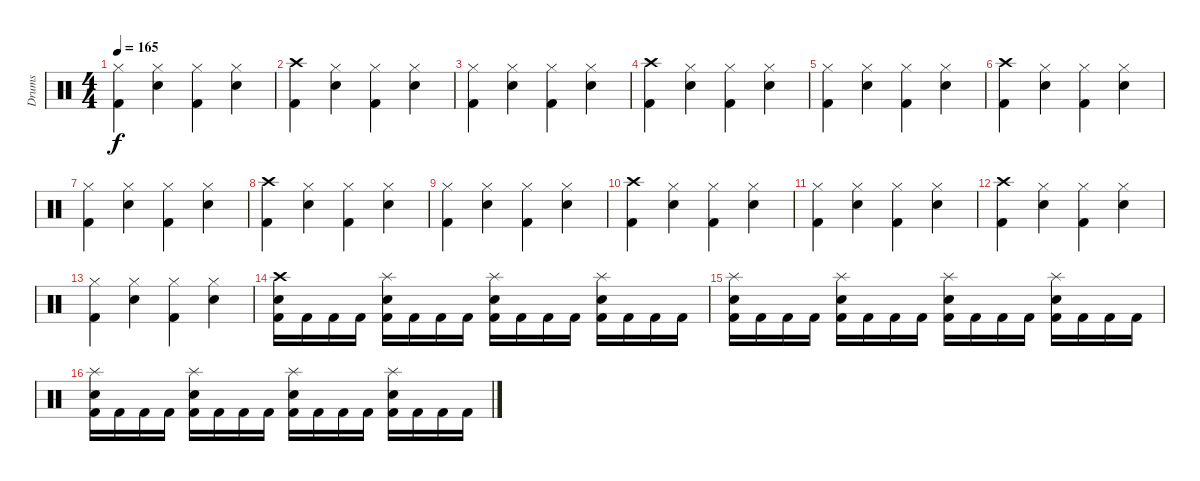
\track ("Drums" "Drums") {instrument percussion}
\staff {score}
\articulation defaults
\ts (4 4)
\tempo 165
\clef neutral
\ks c
("Kick (hit) 2" "Hi-Hat (closed)").4{dy f} ("Snare (hit) 2" "Hi-Hat (closed)").4 ("Kick (hit) 2" "Hi-Hat (closed)").4 ("Snare (hit) 2" "Hi-Hat (closed)").4 |
("Kick (hit) 2" "Crash high (hit)").4 ("Snare (hit) 2" "Hi-Hat (closed)").4 ("Kick (hit) 2" "Hi-Hat (closed)").4 ("Snare (hit) 2" "Hi-Hat (closed)").4 |
("Kick (hit) 2" "Hi-Hat (closed)").4 ("Snare (hit) 2" "Hi-Hat (closed)").4 ("Kick (hit) 2" "Hi-Hat (closed)").4 ("Snare (hit) 2" "Hi-Hat (closed)").4 |
("Kick (hit) 2" "Crash high (hit)").4 ("Snare (hit) 2" "Hi-Hat (closed)").4 ("Kick (hit) 2" "Hi-Hat (closed)").4 ("Snare (hit) 2" "Hi-Hat (closed)").4 |
("Kick (hit) 2" "Hi-Hat (closed)").4 ("Snare (hit) 2" "Hi-Hat (closed)").4 ("Kick (hit) 2" "Hi-Hat (closed)").4 ("Snare (hit) 2" "Hi-Hat (closed)").4 |
("Kick (hit) 2" "Crash high (hit)").4 ("Snare (hit) 2" "Hi-Hat (closed)").4 ("Kick (hit) 2" "Hi-Hat (closed)").4 ("Snare (hit) 2" "Hi-Hat (closed)").4 |
("Kick (hit) 2" "Hi-Hat (closed)").4 ("Snare (hit) 2" "Hi-Hat (closed)").4 ("Kick (hit) 2" "Hi-Hat (closed)").4 ("Snare (hit) 2" "Hi-Hat (closed)").4 |
("Kick (hit) 2" "Crash high (hit)").4 ("Snare (hit) 2" "Hi-Hat (closed)").4 ("Kick (hit) 2" "Hi-Hat (closed)").4 ("Snare (hit) 2" "Hi-Hat (closed)").4 |
("Kick (hit) 2" "Hi-Hat (closed)").4 ("Snare (hit) 2" "Hi-Hat (closed)").4 ("Kick (hit) 2" "Hi-Hat (closed)").4 ("Snare (hit) 2" "Hi-Hat (closed)").4 |
("Kick (hit) 2" "Crash high (hit)").4 ("Snare (hit) 2" "Hi-Hat (closed)").4 ("Kick (hit) 2" "Hi-Hat (closed)").4 ("Snare (hit) 2" "Hi-Hat (closed)").4 |
("Kick (hit) 2" "Hi-Hat (closed)").4 ("Snare (hit) 2" "Hi-Hat (closed)").4 ("Kick (hit) 2" "Hi-Hat (closed)").4 ("Snare (hit) 2" "Hi-Hat (closed)").4 |
("Kick (hit) 2" "Crash high (hit)").4 ("Snare (hit) 2" "Hi-Hat (closed)").4 ("Kick (hit) 2" "Hi-Hat (closed)").4 ("Snare (hit) 2" "Hi-Hat (closed)").4 |
("Kick (hit) 2" "Hi-Hat (closed)").4 ("Snare (hit) 2" "Hi-Hat (closed)").4 ("Kick (hit) 2" "Hi-Hat (closed)").4 ("Snare (hit) 2" "Hi-Hat (closed)").4 |
("Kick (hit) 2" "Snare (hit) 2" "Crash high (hit)").16 "Kick (hit) 2".16 "Kick (hit) 2".16 "Kick (hit) 2".16 ("Kick (hit) 2" "Snare (hit) 2" "Splash (hit)").16 "Kick (hit) 2".16 "Kick (hit) 2".16 "Kick (hit) 2".16 ("Kick (hit) 2" "Snare (hit) 2" "Splash (hit)").16 "Kick (hit) 2".16 "Kick (hit) 2".16 "Kick (hit) 2".16 ("Kick (hit) 2" "Snare (hit) 2" "Splash (hit)").16 "Kick (hit) 2".16 "Kick (hit) 2".16 "Kick (hit) 2".16 |
("Kick (hit) 2" "Snare (hit) 2" "Splash (hit)").16 "Kick (hit) 2".16 "Kick (hit) 2".16 "Kick (hit) 2".16 ("Kick (hit) 2" "Snare (hit) 2" "Splash (hit)").16 "Kick (hit) 2".16 "Kick (hit) 2".16 "Kick (hit) 2".16 ("Kick (hit) 2" "Snare (hit) 2" "Splash (hit)").16 "Kick (hit) 2".16 "Kick (hit) 2".16 "Kick (hit) 2".16 ("Kick (hit) 2" "Snare (hit) 2" "Splash (hit)").16 "Kick (hit) 2".16 "Kick (hit) 2".16 "Kick (hit) 2".16 |
("Kick (hit) 2" "Snare (hit) 2" "Splash (hit)").16 "Kick (hit) 2".16 "Kick (hit) 2".16 "Kick (hit) 2".16 ("Kick (hit) 2" "Snare (hit) 2" "Splash (hit)").16 "Kick (hit) 2".16 "Kick (hit) 2".16 "Kick (hit) 2".16 ("Kick (hit) 2" "Snare (hit) 2" "Splash (hit)").16 "Kick (hit) 2".16 "Kick (hit) 2".16 "Kick (hit) 2".16 ("Kick (hit) 2" "Snare (hit) 2" "Splash (hit)").16 "Kick (hit) 2".16 "Kick (hit) 2".16 "Kick (hit) 2".16
